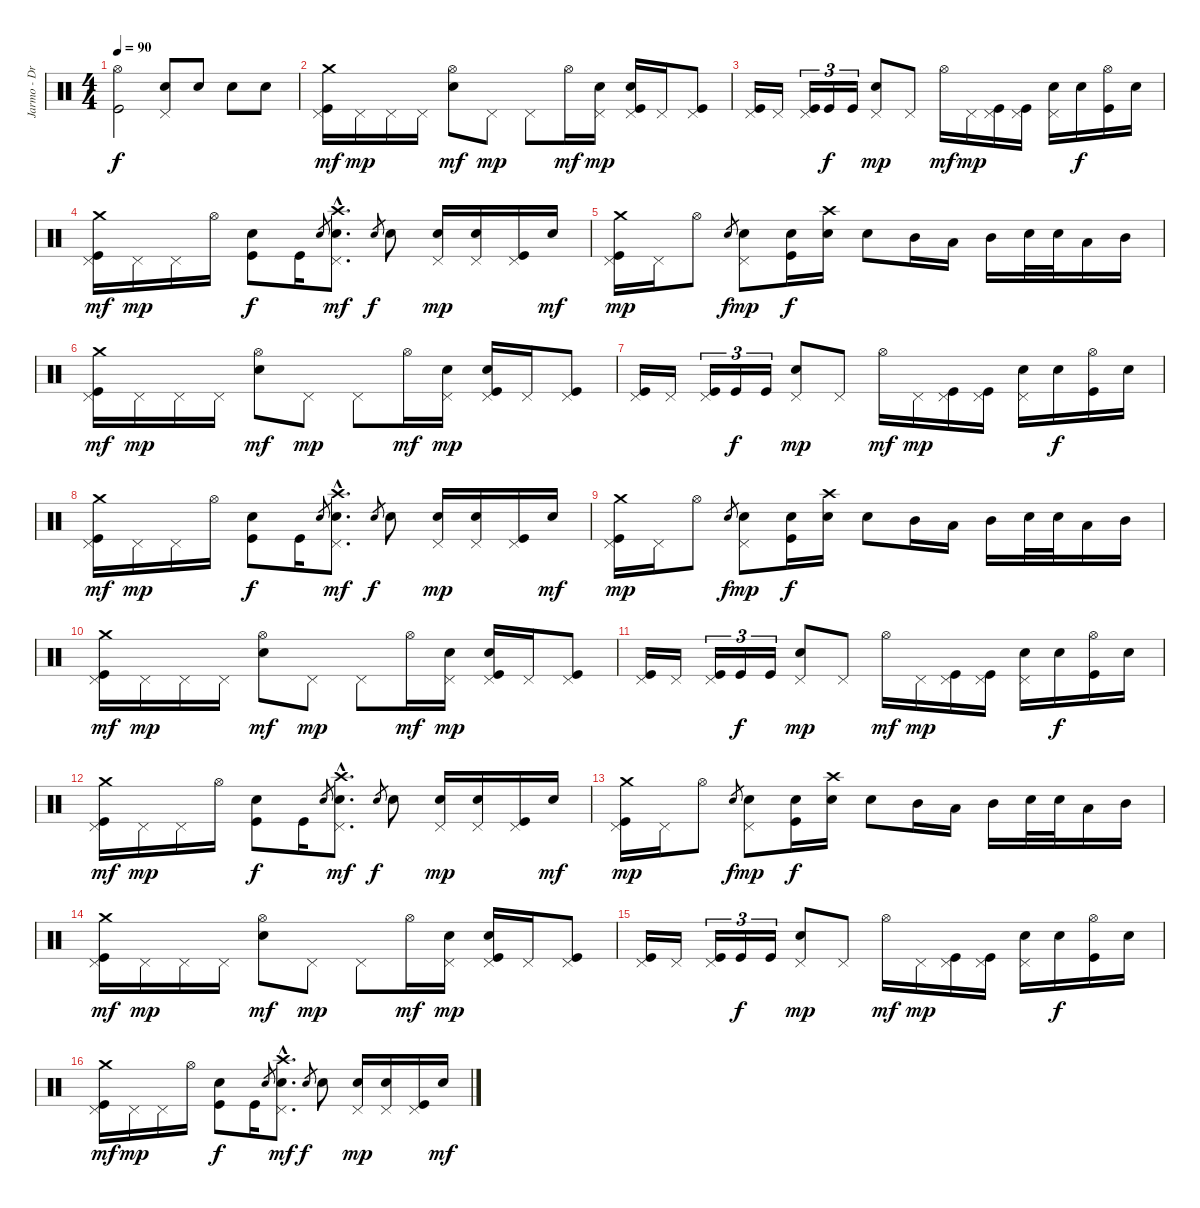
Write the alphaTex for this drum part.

\track ("Jarmo - Drums" "Jarmo - Dr") {instrument percussion}
\staff {score}
\articulation defaults
\ts (4 4)
\tempo 90
\clef neutral
\ks c
("Kick (hit)" "Hi-Hat (open)").2{dy f} ("Electric Snare (hit)" "Pedal Hi-Hat (hit)").8 "Electric Snare (hit)".8 "Electric Snare (hit)".8 "Electric Snare (hit)".8 |
("Kick (hit)" "Pedal Hi-Hat (hit)" "Crash medium (hit)").16{dy mf} "Pedal Hi-Hat (hit)".16{dy mp} "Pedal Hi-Hat (hit)".16 "Pedal Hi-Hat (hit)".16 ("Electric Snare (hit)" "Hi-Hat (open)").8{dy mf} "Pedal Hi-Hat (hit)".8{dy mp} "Pedal Hi-Hat (hit)".8 "Hi-Hat (open)".16{dy mf} ("Electric Snare (hit)" "Pedal Hi-Hat (hit)").16{dy mp} ("Kick (hit)" "Electric Snare (hit)" "Pedal Hi-Hat (hit)").16 "Pedal Hi-Hat (hit)".16 ("Kick (hit)" "Pedal Hi-Hat (hit)").8 |
("Kick (hit)" "Pedal Hi-Hat (hit)").16 "Pedal Hi-Hat (hit)".16 ("Kick (hit)" "Pedal Hi-Hat (hit)").16{tu (3 2)} "Kick (hit)".16{tu (3 2) dy f} "Kick (hit)".16{tu (3 2)} ("Electric Snare (hit)" "Pedal Hi-Hat (hit)").8{dy mp} "Pedal Hi-Hat (hit)".8 "Hi-Hat (open)".16{dy mf} "Pedal Hi-Hat (hit)".16{dy mp} ("Kick (hit)" "Pedal Hi-Hat (hit)").16 ("Kick (hit)" "Pedal Hi-Hat (hit)").16 ("Electric Snare (hit)" "Pedal Hi-Hat (hit)").16 "Electric Snare (hit)".16{dy f} ("Kick (hit)" "Hi-Hat (open)").16 "Electric Snare (hit)".16 |
("Kick (hit)" "Pedal Hi-Hat (hit)" "Crash medium (hit)").16{dy mf} "Pedal Hi-Hat (hit)".16{dy mp} "Pedal Hi-Hat (hit)".16 "Hi-Hat (open)".16 ("Kick (hit)" "Electric Snare (hit)").8{dy f} "Kick (hit)".16 "Snare (hit) 2".8{gr} ("Electric Snare (hit)"{hac} "Pedal Hi-Hat (hit)"{hac} "Crash high (hit)"{hac}).8{d dy mf} "Snare (hit) 2".8{gr dy f} "Electric Snare (hit)".8 ("Electric Snare (hit)" "Pedal Hi-Hat (hit)").16{dy mp} ("Electric Snare (hit)" "Pedal Hi-Hat (hit)").16 ("Kick (hit)" "Pedal Hi-Hat (hit)").16 "Electric Snare (hit)".16{dy mf} |
("Kick (hit)" "Pedal Hi-Hat (hit)" "Crash medium (hit)").16{dy mp} "Pedal Hi-Hat (hit)".16 "Hi-Hat (open)".8 "Snare (hit) 2".8{gr dy f} ("Electric Snare (hit)" "Pedal Hi-Hat (hit)").8{dy mp} ("Kick (hit)" "Electric Snare (hit)").16{dy f} ("Electric Snare (hit)" "Crash high (hit)").16 "Electric Snare (hit)".8 "Mid Tom (hit)".16 "Low Tom (hit)".16 "Mid Tom (hit)".16 "Electric Snare (hit)".32 "Electric Snare (hit)".32 "Low Tom (hit)".16 "Mid Tom (hit)".16 |
("Kick (hit)" "Pedal Hi-Hat (hit)" "Crash medium (hit)").16{dy mf} "Pedal Hi-Hat (hit)".16{dy mp} "Pedal Hi-Hat (hit)".16 "Pedal Hi-Hat (hit)".16 ("Electric Snare (hit)" "Hi-Hat (open)").8{dy mf} "Pedal Hi-Hat (hit)".8{dy mp} "Pedal Hi-Hat (hit)".8 "Hi-Hat (open)".16{dy mf} ("Electric Snare (hit)" "Pedal Hi-Hat (hit)").16{dy mp} ("Kick (hit)" "Electric Snare (hit)" "Pedal Hi-Hat (hit)").16 "Pedal Hi-Hat (hit)".16 ("Kick (hit)" "Pedal Hi-Hat (hit)").8 |
("Kick (hit)" "Pedal Hi-Hat (hit)").16 "Pedal Hi-Hat (hit)".16 ("Kick (hit)" "Pedal Hi-Hat (hit)").16{tu (3 2)} "Kick (hit)".16{tu (3 2) dy f} "Kick (hit)".16{tu (3 2)} ("Electric Snare (hit)" "Pedal Hi-Hat (hit)").8{dy mp} "Pedal Hi-Hat (hit)".8 "Hi-Hat (open)".16{dy mf} "Pedal Hi-Hat (hit)".16{dy mp} ("Kick (hit)" "Pedal Hi-Hat (hit)").16 ("Kick (hit)" "Pedal Hi-Hat (hit)").16 ("Electric Snare (hit)" "Pedal Hi-Hat (hit)").16 "Electric Snare (hit)".16{dy f} ("Kick (hit)" "Hi-Hat (open)").16 "Electric Snare (hit)".16 |
("Kick (hit)" "Pedal Hi-Hat (hit)" "Crash medium (hit)").16{dy mf} "Pedal Hi-Hat (hit)".16{dy mp} "Pedal Hi-Hat (hit)".16 "Hi-Hat (open)".16 ("Kick (hit)" "Electric Snare (hit)").8{dy f} "Kick (hit)".16 "Snare (hit) 2".8{gr} ("Electric Snare (hit)"{hac} "Pedal Hi-Hat (hit)"{hac} "Crash high (hit)"{hac}).8{d dy mf} "Snare (hit) 2".8{gr dy f} "Electric Snare (hit)".8 ("Electric Snare (hit)" "Pedal Hi-Hat (hit)").16{dy mp} ("Electric Snare (hit)" "Pedal Hi-Hat (hit)").16 ("Kick (hit)" "Pedal Hi-Hat (hit)").16 "Electric Snare (hit)".16{dy mf} |
("Kick (hit)" "Pedal Hi-Hat (hit)" "Crash medium (hit)").16{dy mp} "Pedal Hi-Hat (hit)".16 "Hi-Hat (open)".8 "Snare (hit) 2".8{gr dy f} ("Electric Snare (hit)" "Pedal Hi-Hat (hit)").8{dy mp} ("Kick (hit)" "Electric Snare (hit)").16{dy f} ("Electric Snare (hit)" "Crash high (hit)").16 "Electric Snare (hit)".8 "Mid Tom (hit)".16 "Low Tom (hit)".16 "Mid Tom (hit)".16 "Electric Snare (hit)".32 "Electric Snare (hit)".32 "Low Tom (hit)".16 "Mid Tom (hit)".16 |
("Kick (hit)" "Pedal Hi-Hat (hit)" "Crash medium (hit)").16{dy mf} "Pedal Hi-Hat (hit)".16{dy mp} "Pedal Hi-Hat (hit)".16 "Pedal Hi-Hat (hit)".16 ("Electric Snare (hit)" "Hi-Hat (open)").8{dy mf} "Pedal Hi-Hat (hit)".8{dy mp} "Pedal Hi-Hat (hit)".8 "Hi-Hat (open)".16{dy mf} ("Electric Snare (hit)" "Pedal Hi-Hat (hit)").16{dy mp} ("Kick (hit)" "Electric Snare (hit)" "Pedal Hi-Hat (hit)").16 "Pedal Hi-Hat (hit)".16 ("Kick (hit)" "Pedal Hi-Hat (hit)").8 |
("Kick (hit)" "Pedal Hi-Hat (hit)").16 "Pedal Hi-Hat (hit)".16 ("Kick (hit)" "Pedal Hi-Hat (hit)").16{tu (3 2)} "Kick (hit)".16{tu (3 2) dy f} "Kick (hit)".16{tu (3 2)} ("Electric Snare (hit)" "Pedal Hi-Hat (hit)").8{dy mp} "Pedal Hi-Hat (hit)".8 "Hi-Hat (open)".16{dy mf} "Pedal Hi-Hat (hit)".16{dy mp} ("Kick (hit)" "Pedal Hi-Hat (hit)").16 ("Kick (hit)" "Pedal Hi-Hat (hit)").16 ("Electric Snare (hit)" "Pedal Hi-Hat (hit)").16 "Electric Snare (hit)".16{dy f} ("Kick (hit)" "Hi-Hat (open)").16 "Electric Snare (hit)".16 |
("Kick (hit)" "Pedal Hi-Hat (hit)" "Crash medium (hit)").16{dy mf} "Pedal Hi-Hat (hit)".16{dy mp} "Pedal Hi-Hat (hit)".16 "Hi-Hat (open)".16 ("Kick (hit)" "Electric Snare (hit)").8{dy f} "Kick (hit)".16 "Snare (hit) 2".8{gr} ("Electric Snare (hit)"{hac} "Pedal Hi-Hat (hit)"{hac} "Crash high (hit)"{hac}).8{d dy mf} "Snare (hit) 2".8{gr dy f} "Electric Snare (hit)".8 ("Electric Snare (hit)" "Pedal Hi-Hat (hit)").16{dy mp} ("Electric Snare (hit)" "Pedal Hi-Hat (hit)").16 ("Kick (hit)" "Pedal Hi-Hat (hit)").16 "Electric Snare (hit)".16{dy mf} |
("Kick (hit)" "Pedal Hi-Hat (hit)" "Crash medium (hit)").16{dy mp} "Pedal Hi-Hat (hit)".16 "Hi-Hat (open)".8 "Snare (hit) 2".8{gr dy f} ("Electric Snare (hit)" "Pedal Hi-Hat (hit)").8{dy mp} ("Kick (hit)" "Electric Snare (hit)").16{dy f} ("Electric Snare (hit)" "Crash high (hit)").16 "Electric Snare (hit)".8 "Mid Tom (hit)".16 "Low Tom (hit)".16 "Mid Tom (hit)".16 "Electric Snare (hit)".32 "Electric Snare (hit)".32 "Low Tom (hit)".16 "Mid Tom (hit)".16 |
("Kick (hit)" "Pedal Hi-Hat (hit)" "Crash medium (hit)").16{dy mf} "Pedal Hi-Hat (hit)".16{dy mp} "Pedal Hi-Hat (hit)".16 "Pedal Hi-Hat (hit)".16 ("Electric Snare (hit)" "Hi-Hat (open)").8{dy mf} "Pedal Hi-Hat (hit)".8{dy mp} "Pedal Hi-Hat (hit)".8 "Hi-Hat (open)".16{dy mf} ("Electric Snare (hit)" "Pedal Hi-Hat (hit)").16{dy mp} ("Kick (hit)" "Electric Snare (hit)" "Pedal Hi-Hat (hit)").16 "Pedal Hi-Hat (hit)".16 ("Kick (hit)" "Pedal Hi-Hat (hit)").8 |
("Kick (hit)" "Pedal Hi-Hat (hit)").16 "Pedal Hi-Hat (hit)".16 ("Kick (hit)" "Pedal Hi-Hat (hit)").16{tu (3 2)} "Kick (hit)".16{tu (3 2) dy f} "Kick (hit)".16{tu (3 2)} ("Electric Snare (hit)" "Pedal Hi-Hat (hit)").8{dy mp} "Pedal Hi-Hat (hit)".8 "Hi-Hat (open)".16{dy mf} "Pedal Hi-Hat (hit)".16{dy mp} ("Kick (hit)" "Pedal Hi-Hat (hit)").16 ("Kick (hit)" "Pedal Hi-Hat (hit)").16 ("Electric Snare (hit)" "Pedal Hi-Hat (hit)").16 "Electric Snare (hit)".16{dy f} ("Kick (hit)" "Hi-Hat (open)").16 "Electric Snare (hit)".16 |
("Kick (hit)" "Pedal Hi-Hat (hit)" "Crash medium (hit)").16{dy mf} "Pedal Hi-Hat (hit)".16{dy mp} "Pedal Hi-Hat (hit)".16 "Hi-Hat (open)".16 ("Kick (hit)" "Electric Snare (hit)").8{dy f} "Kick (hit)".16 "Snare (hit) 2".8{gr} ("Electric Snare (hit)"{hac} "Pedal Hi-Hat (hit)"{hac} "Crash high (hit)"{hac}).8{d dy mf} "Snare (hit) 2".8{gr dy f} "Electric Snare (hit)".8 ("Electric Snare (hit)" "Pedal Hi-Hat (hit)").16{dy mp} ("Electric Snare (hit)" "Pedal Hi-Hat (hit)").16 ("Kick (hit)" "Pedal Hi-Hat (hit)").16 "Electric Snare (hit)".16{dy mf}
